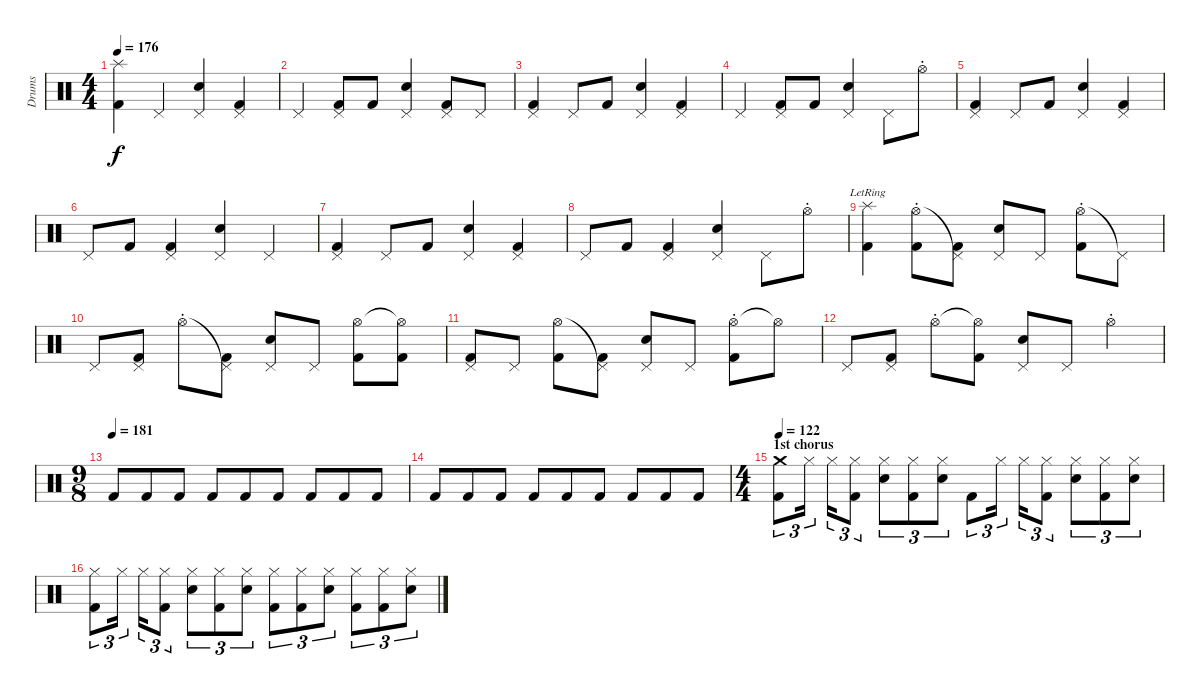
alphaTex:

\track ("Drums" "Drums") {instrument percussion}
\staff {score}
\articulation defaults
\ts (4 4)
\tempo 176
\clef neutral
\ks c
("Splash (hit)" "Kick (hit) 2").4{dy f} "Pedal Hi-Hat (hit)".4 ("Pedal Hi-Hat (hit)" "Electric Snare (hit)").4 ("Pedal Hi-Hat (hit)" "Kick (hit) 2").4 |
"Pedal Hi-Hat (hit)".4 ("Pedal Hi-Hat (hit)" "Kick (hit) 2").8 "Kick (hit) 2".8 ("Pedal Hi-Hat (hit)" "Electric Snare (hit)").4 ("Kick (hit) 2" "Pedal Hi-Hat (hit)").8 "Pedal Hi-Hat (hit)".8 |
("Pedal Hi-Hat (hit)" "Kick (hit) 2").4 "Pedal Hi-Hat (hit)".8 "Kick (hit) 2".8 ("Pedal Hi-Hat (hit)" "Electric Snare (hit)").4 ("Pedal Hi-Hat (hit)" "Kick (hit) 2").4 |
"Pedal Hi-Hat (hit)".4 ("Pedal Hi-Hat (hit)" "Kick (hit) 2").8 "Kick (hit) 2".8 ("Pedal Hi-Hat (hit)" "Electric Snare (hit)").4 "Pedal Hi-Hat (hit)".8 "Hi-Hat (open)"{st}.8 |
("Pedal Hi-Hat (hit)" "Kick (hit) 2").4 "Pedal Hi-Hat (hit)".8 "Kick (hit) 2".8 ("Pedal Hi-Hat (hit)" "Electric Snare (hit)").4 ("Pedal Hi-Hat (hit)" "Kick (hit) 2").4 |
"Pedal Hi-Hat (hit)".8 "Kick (hit) 2".8 ("Pedal Hi-Hat (hit)" "Kick (hit) 2").4 ("Pedal Hi-Hat (hit)" "Electric Snare (hit)").4 "Pedal Hi-Hat (hit)".4 |
("Pedal Hi-Hat (hit)" "Kick (hit) 2").4 "Pedal Hi-Hat (hit)".8 "Kick (hit) 2".8 ("Pedal Hi-Hat (hit)" "Electric Snare (hit)").4 ("Pedal Hi-Hat (hit)" "Kick (hit) 2").4 |
"Pedal Hi-Hat (hit)".8 "Kick (hit) 2".8 ("Kick (hit) 2" "Pedal Hi-Hat (hit)").4 ("Pedal Hi-Hat (hit)" "Electric Snare (hit)").4 "Pedal Hi-Hat (hit)".8 "Hi-Hat (open)"{st}.8 |
("Kick (hit) 2"{lr} "Splash (hit)").4 ("Hi-Hat (open)"{st} "Kick (hit) 2").8 ("Pedal Hi-Hat (hit)"{t} "Kick (hit) 2").8 ("Pedal Hi-Hat (hit)" "Electric Snare (hit)").8 "Pedal Hi-Hat (hit)".8 ("Hi-Hat (open)"{st} "Kick (hit) 2").8 "Pedal Hi-Hat (hit)"{t}.8 |
"Pedal Hi-Hat (hit)".8 ("Pedal Hi-Hat (hit)" "Kick (hit) 2").8 "Hi-Hat (open)"{st}.8 ("Pedal Hi-Hat (hit)"{t} "Kick (hit) 2").8 ("Pedal Hi-Hat (hit)" "Electric Snare (hit)").8 "Pedal Hi-Hat (hit)".8 ("Hi-Hat (open)" "Kick (hit) 2").8 ("Hi-Hat (open)"{t} "Kick (hit) 2").8 |
("Kick (hit) 2" "Pedal Hi-Hat (hit)").8 "Pedal Hi-Hat (hit)".8 ("Hi-Hat (open)" "Kick (hit) 2").8 ("Pedal Hi-Hat (hit)"{t} "Kick (hit) 2").8 ("Pedal Hi-Hat (hit)" "Electric Snare (hit)").8 "Pedal Hi-Hat (hit)".8 ("Hi-Hat (open)"{st} "Kick (hit) 2").8 "Hi-Hat (open)"{t}.8 |
"Pedal Hi-Hat (hit)".8 ("Pedal Hi-Hat (hit)" "Kick (hit) 2").8 "Hi-Hat (open)"{st}.8 ("Hi-Hat (open)"{t} "Kick (hit) 2").8 ("Pedal Hi-Hat (hit)" "Electric Snare (hit)").8 "Pedal Hi-Hat (hit)".8 "Hi-Hat (open)"{st}.4 |
\ts (9 8)
\tempo (181)
"Kick (hit) 2".8 "Kick (hit) 2".8 "Kick (hit) 2".8 "Kick (hit) 2".8 "Kick (hit) 2".8 "Kick (hit) 2".8 "Kick (hit) 2".8 "Kick (hit) 2".8 "Kick (hit) 2".8 |
"Kick (hit) 2".8 "Kick (hit) 2".8 "Kick (hit) 2".8 "Kick (hit) 2".8 "Kick (hit) 2".8 "Kick (hit) 2".8 "Kick (hit) 2".8 "Kick (hit) 2".8 "Kick (hit) 2".8 |
\ts (4 4)
\section ("" "1st chorus")
\tempo 122
("Kick (hit) 2" "Crash medium (hit)").8{tu (3 2)} "Hi-Hat (closed)".16{tu (3 2)} "Hi-Hat (closed)".16{tu (3 2)} ("Hi-Hat (closed)" "Kick (hit) 2").8{tu (3 2)} ("Hi-Hat (closed)" "Electric Snare (hit)").8{tu (3 2)} ("Hi-Hat (closed)" "Kick (hit) 2").8{tu (3 2)} ("Hi-Hat (closed)" "Electric Snare (hit)").8{tu (3 2)} "Kick (hit) 2".8{tu (3 2)} "Hi-Hat (closed)".16{tu (3 2)} "Hi-Hat (closed)".16{tu (3 2)} ("Hi-Hat (closed)" "Kick (hit) 2").8{tu (3 2)} ("Hi-Hat (closed)" "Electric Snare (hit)").8{tu (3 2)} ("Hi-Hat (closed)" "Kick (hit) 2").8{tu (3 2)} ("Hi-Hat (closed)" "Electric Snare (hit)").8{tu (3 2)} |
("Hi-Hat (closed)" "Kick (hit) 2").8{tu (3 2)} "Hi-Hat (closed)".16{tu (3 2)} "Hi-Hat (closed)".16{tu (3 2)} ("Hi-Hat (closed)" "Kick (hit) 2").8{tu (3 2)} ("Hi-Hat (closed)" "Electric Snare (hit)").8{tu (3 2)} ("Hi-Hat (closed)" "Kick (hit) 2").8{tu (3 2)} ("Hi-Hat (closed)" "Electric Snare (hit)").8{tu (3 2)} ("Hi-Hat (closed)" "Kick (hit) 2").8{tu (3 2)} ("Hi-Hat (closed)" "Kick (hit) 2").8{tu (3 2)} ("Hi-Hat (closed)" "Electric Snare (hit)").8{tu (3 2)} ("Hi-Hat (closed)" "Kick (hit) 2").8{tu (3 2)} ("Hi-Hat (closed)" "Kick (hit) 2").8{tu (3 2)} ("Hi-Hat (closed)" "Electric Snare (hit)").8{tu (3 2)}
